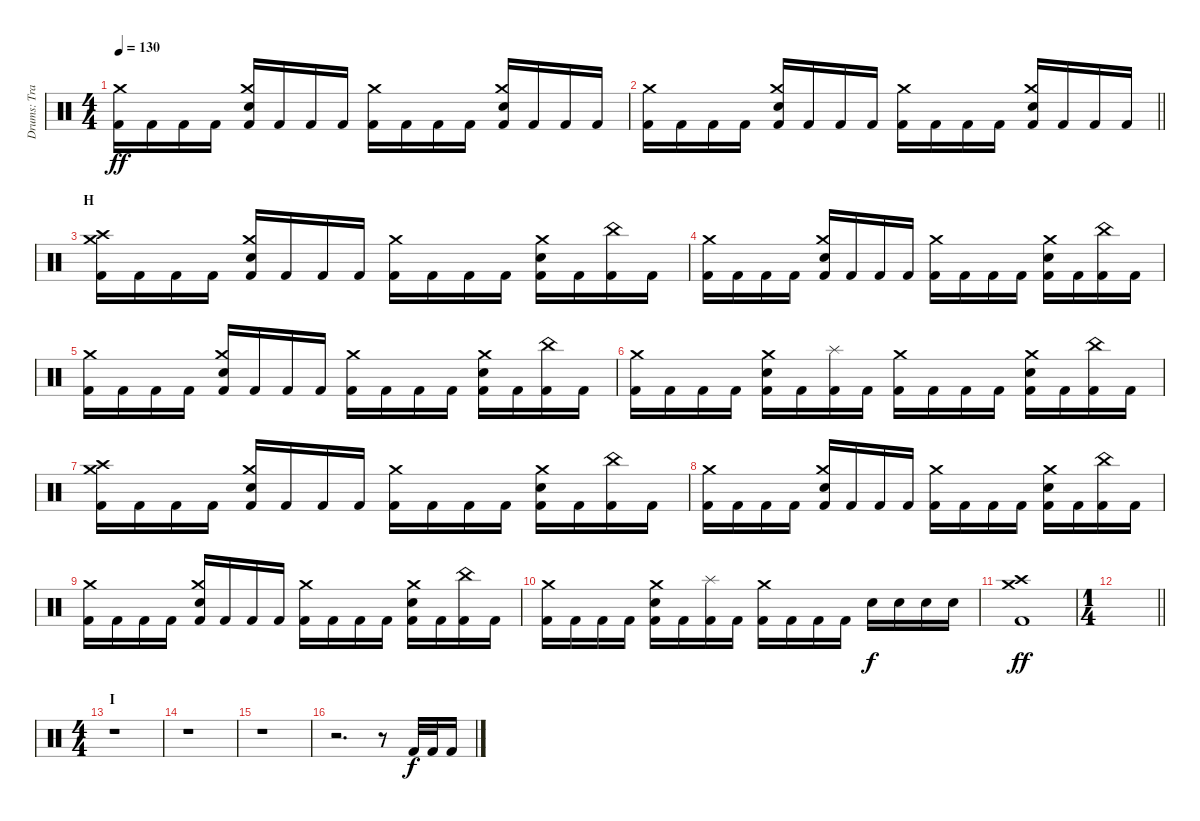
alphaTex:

\track ("Drums: Travis Clarke" "Drums: Tra") {instrument percussion}
\staff {score}
\articulation defaults
\ts (4 4)
\tempo 130
\clef neutral
\ks c
("Kick (hit) 2" "Crash medium (hit)").16{dy ff} "Kick (hit) 2".16 "Kick (hit) 2".16 "Kick (hit) 2".16 ("Kick (hit) 2" "Snare (hit) 2" "Crash medium (hit)").16 "Kick (hit) 2".16 "Kick (hit) 2".16 "Kick (hit) 2".16 ("Kick (hit) 2" "Crash medium (hit)").16 "Kick (hit) 2".16 "Kick (hit) 2".16 "Kick (hit) 2".16 ("Kick (hit) 2" "Snare (hit) 2" "Crash medium (hit)").16 "Kick (hit) 2".16 "Kick (hit) 2".16 "Kick (hit) 2".16 |
\barLineRight lightlight
("Kick (hit) 2" "Crash medium (hit)").16 "Kick (hit) 2".16 "Kick (hit) 2".16 "Kick (hit) 2".16 ("Kick (hit) 2" "Snare (hit) 2" "Crash medium (hit)").16 "Kick (hit) 2".16 "Kick (hit) 2".16 "Kick (hit) 2".16 ("Kick (hit) 2" "Crash medium (hit)").16 "Kick (hit) 2".16 "Kick (hit) 2".16 "Kick (hit) 2".16 ("Kick (hit) 2" "Snare (hit) 2" "Crash medium (hit)").16 "Kick (hit) 2".16 "Kick (hit) 2".16 "Kick (hit) 2".16 |
\section ("" "H")
("Kick (hit) 2" "Crash high (hit)" "Crash medium (hit)").16 "Kick (hit) 2".16 "Kick (hit) 2".16 "Kick (hit) 2".16 ("Kick (hit) 2" "Snare (hit) 2" "Crash medium (hit)").16 "Kick (hit) 2".16 "Kick (hit) 2".16 "Kick (hit) 2".16 ("Kick (hit) 2" "Crash medium (hit)").16 "Kick (hit) 2".16 "Kick (hit) 2".16 "Kick (hit) 2".16 ("Kick (hit) 2" "Snare (hit) 2" "Crash medium (hit)").16 "Kick (hit) 2".16 ("Kick (hit) 2" "China (hit)").16 "Kick (hit) 2".16 |
("Kick (hit) 2" "Crash medium (hit)").16 "Kick (hit) 2".16 "Kick (hit) 2".16 "Kick (hit) 2".16 ("Kick (hit) 2" "Snare (hit) 2" "Crash medium (hit)").16 "Kick (hit) 2".16 "Kick (hit) 2".16 "Kick (hit) 2".16 ("Kick (hit) 2" "Crash medium (hit)").16 "Kick (hit) 2".16 "Kick (hit) 2".16 "Kick (hit) 2".16 ("Kick (hit) 2" "Snare (hit) 2" "Crash medium (hit)").16 "Kick (hit) 2".16 ("Kick (hit) 2" "China (hit)").16 "Kick (hit) 2".16 |
("Kick (hit) 2" "Crash medium (hit)").16 "Kick (hit) 2".16 "Kick (hit) 2".16 "Kick (hit) 2".16 ("Kick (hit) 2" "Snare (hit) 2" "Crash medium (hit)").16 "Kick (hit) 2".16 "Kick (hit) 2".16 "Kick (hit) 2".16 ("Kick (hit) 2" "Crash medium (hit)").16 "Kick (hit) 2".16 "Kick (hit) 2".16 "Kick (hit) 2".16 ("Kick (hit) 2" "Snare (hit) 2" "Crash medium (hit)").16 "Kick (hit) 2".16 ("Kick (hit) 2" "China (hit)").16 "Kick (hit) 2".16 |
("Kick (hit) 2" "Crash medium (hit)").16 "Kick (hit) 2".16 "Kick (hit) 2".16 "Kick (hit) 2".16 ("Kick (hit) 2" "Snare (hit) 2" "Crash medium (hit)").16 "Kick (hit) 2".16 ("Kick (hit) 2" "Splash (hit)").16 "Kick (hit) 2".16 ("Kick (hit) 2" "Crash medium (hit)").16 "Kick (hit) 2".16 "Kick (hit) 2".16 "Kick (hit) 2".16 ("Kick (hit) 2" "Snare (hit) 2" "Crash medium (hit)").16 "Kick (hit) 2".16 ("Kick (hit) 2" "China (hit)").16 "Kick (hit) 2".16 |
("Kick (hit) 2" "Crash high (hit)" "Crash medium (hit)").16 "Kick (hit) 2".16 "Kick (hit) 2".16 "Kick (hit) 2".16 ("Kick (hit) 2" "Snare (hit) 2" "Crash medium (hit)").16 "Kick (hit) 2".16 "Kick (hit) 2".16 "Kick (hit) 2".16 ("Kick (hit) 2" "Crash medium (hit)").16 "Kick (hit) 2".16 "Kick (hit) 2".16 "Kick (hit) 2".16 ("Kick (hit) 2" "Snare (hit) 2" "Crash medium (hit)").16 "Kick (hit) 2".16 ("Kick (hit) 2" "China (hit)").16 "Kick (hit) 2".16 |
("Kick (hit) 2" "Crash medium (hit)").16 "Kick (hit) 2".16 "Kick (hit) 2".16 "Kick (hit) 2".16 ("Kick (hit) 2" "Snare (hit) 2" "Crash medium (hit)").16 "Kick (hit) 2".16 "Kick (hit) 2".16 "Kick (hit) 2".16 ("Kick (hit) 2" "Crash medium (hit)").16 "Kick (hit) 2".16 "Kick (hit) 2".16 "Kick (hit) 2".16 ("Kick (hit) 2" "Snare (hit) 2" "Crash medium (hit)").16 "Kick (hit) 2".16 ("Kick (hit) 2" "China (hit)").16 "Kick (hit) 2".16 |
("Kick (hit) 2" "Crash medium (hit)").16 "Kick (hit) 2".16 "Kick (hit) 2".16 "Kick (hit) 2".16 ("Kick (hit) 2" "Snare (hit) 2" "Crash medium (hit)").16 "Kick (hit) 2".16 "Kick (hit) 2".16 "Kick (hit) 2".16 ("Kick (hit) 2" "Crash medium (hit)").16 "Kick (hit) 2".16 "Kick (hit) 2".16 "Kick (hit) 2".16 ("Kick (hit) 2" "Snare (hit) 2" "Crash medium (hit)").16 "Kick (hit) 2".16 ("Kick (hit) 2" "China (hit)").16 "Kick (hit) 2".16 |
("Kick (hit) 2" "Crash medium (hit)").16 "Kick (hit) 2".16 "Kick (hit) 2".16 "Kick (hit) 2".16 ("Kick (hit) 2" "Snare (hit) 2" "Crash medium (hit)").16 "Kick (hit) 2".16 ("Kick (hit) 2" "Splash (hit)").16 "Kick (hit) 2".16 ("Kick (hit) 2" "Crash medium (hit)").16 "Kick (hit) 2".16 "Kick (hit) 2".16 "Kick (hit) 2".16 "Snare (hit) 2".16{dy f} "Snare (hit) 2".16 "Snare (hit) 2".16 "Snare (hit) 2".16 |
("Kick (hit) 2" "Crash high (hit)" "Crash medium (hit)").1{dy ff} |
\ts (1 4)
\barLineRight lightlight
|
\ts (4 4)
\section ("" "I")
r.1 |
r.1 |
r.1 |
r.2{d} r.8 "Kick (hit) 2".32{dy f} "Kick (hit) 2".32 "Kick (hit) 2".16
